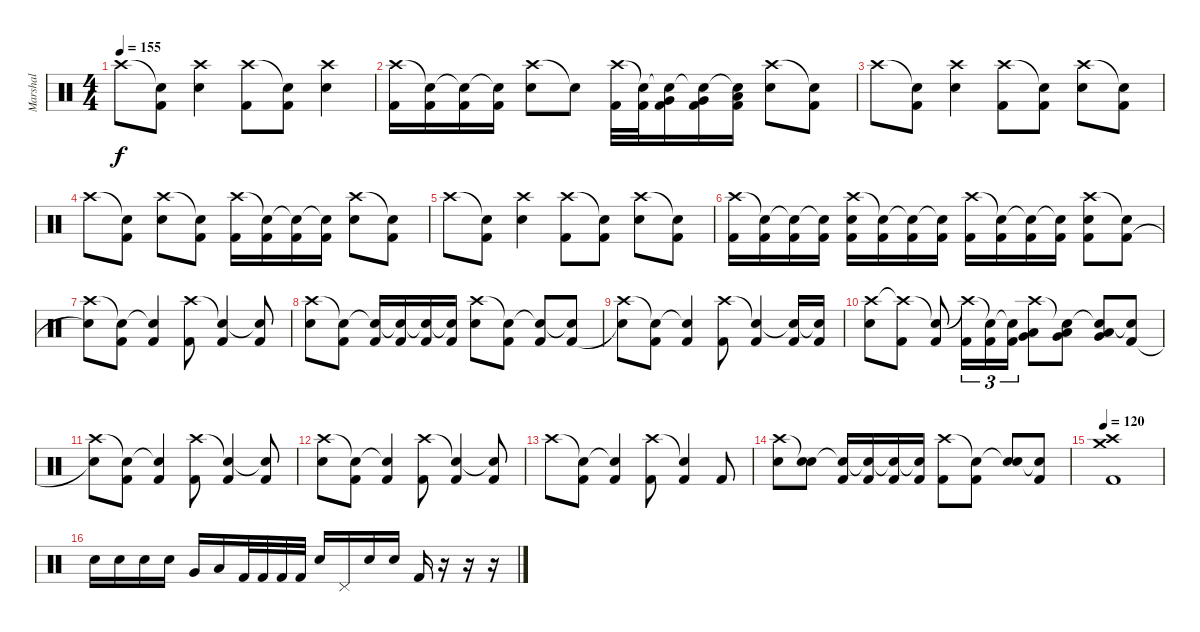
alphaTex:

\track ("Marshal" "Marshal") {instrument percussion}
\staff {score}
\articulation defaults
\ts (4 4)
\tempo 155
\clef neutral
\ks c "Crash high (hit)".8{dy f}
("Snare (hit)"{t} "Kick (hit) 2").8 ("Crash high (hit)" "Electric Snare (hit)").4 ("Crash high (hit)" "Kick (hit) 2").8 ("Snare (hit)"{t} "Kick (hit) 2").8 ("Crash high (hit)" "Electric Snare (hit)").4 |
("Crash high (hit)" "Kick (hit) 2").16 ("Snare (hit)"{t} "Kick (hit) 2").16 ("Snare (hit)"{t} "Kick (hit) 2").16 ("Snare (hit)"{t} "Kick (hit) 2").16 ("Crash high (hit)" "Electric Snare (hit)").8 "Snare (hit)"{t}.8 ("Crash high (hit)" "Kick (hit) 2").32 ("Snare (hit)"{t} "Kick (hit) 2").32 ("Snare (hit)"{t} "Very Low Tom (hit)" "Kick (hit) 2").16 ("Snare (hit)"{t} "Very Low Tom (hit)" "Kick (hit) 2").16 ("Snare (hit)"{t} "Low Floor Tom (hit)" "Kick (hit) 2").16 ("Crash high (hit)" "Electric Snare (hit)").8 ("Snare (hit)"{t} "Kick (hit) 2").8 |
"Crash high (hit)".8 ("Snare (hit)"{t} "Kick (hit) 2").8 ("Crash high (hit)" "Electric Snare (hit)").4 ("Crash high (hit)" "Kick (hit) 2").8 ("Snare (hit)"{t} "Kick (hit) 2").8 ("Crash high (hit)" "Electric Snare (hit)").8 ("Snare (hit)"{t} "Kick (hit) 2").8 |
"Crash high (hit)".8 ("Snare (hit)"{t} "Kick (hit) 2").8 ("Crash high (hit)" "Electric Snare (hit)").8 ("Snare (hit)"{t} "Kick (hit) 2").8 ("Crash high (hit)" "Kick (hit) 2").16 ("Snare (hit)"{t} "Kick (hit) 2").16 ("Snare (hit)"{t} "Kick (hit) 2").16 ("Snare (hit)"{t} "Kick (hit) 2").16 ("Crash high (hit)" "Electric Snare (hit)").8 ("Snare (hit)"{t} "Kick (hit) 2").8 |
"Crash high (hit)".8 ("Snare (hit)"{t} "Kick (hit) 2").8 ("Crash high (hit)" "Electric Snare (hit)").4 ("Crash high (hit)" "Kick (hit) 2").8 ("Snare (hit)"{t} "Kick (hit) 2").8 ("Crash high (hit)" "Electric Snare (hit)").8 ("Snare (hit)"{t} "Kick (hit) 2").8 |
("Crash high (hit)" "Kick (hit) 2").16 ("Snare (hit)"{t} "Kick (hit) 2").16 ("Snare (hit)"{t} "Kick (hit) 2").16 ("Snare (hit)"{t} "Kick (hit) 2").16 ("Crash high (hit)" "Electric Snare (hit)" "Kick (hit) 2").16 ("Snare (hit)"{t} "Kick (hit) 2").16 ("Snare (hit)"{t} "Kick (hit) 2").16 ("Snare (hit)"{t} "Kick (hit) 2").16 ("Crash high (hit)" "Kick (hit) 2").16 ("Snare (hit)"{t} "Kick (hit) 2").16 ("Snare (hit)"{t} "Kick (hit) 2").16 ("Snare (hit)"{t} "Kick (hit) 2").16 ("Crash high (hit)" "Electric Snare (hit)" "Kick (hit) 2").8 ("Snare (hit)"{t} "Kick (hit) 2").8 |
("Crash high (hit)" "Snare (hit)"{t}).8 ("Snare (hit)"{t} "Kick (hit) 2").8 ("Snare (hit)"{t} "Kick (hit) 2").4 ("Crash high (hit)" "Kick (hit) 2").8 ("Snare (hit)"{t} "Kick (hit) 2").4 ("Snare (hit)"{t} "Kick (hit) 2").8 |
("Crash high (hit)" "Electric Snare (hit)").8 ("Snare (hit)"{t} "Kick (hit) 2").8 ("Snare (hit)"{t} "Kick (hit) 2").16 ("Snare (hit)"{t} "Kick (hit) 2").16 ("Snare (hit)"{t} "Kick (hit) 2").16 ("Snare (hit)"{t} "Kick (hit) 2").16 ("Crash high (hit)" "Electric Snare (hit)").8 ("Snare (hit)"{t} "Kick (hit) 2").8 ("Snare (hit)"{t} "Kick (hit) 2").8 ("Snare (hit)"{t} "Kick (hit) 2").8 |
("Crash high (hit)" "Snare (hit)"{t}).8 ("Snare (hit)"{t} "Kick (hit) 2").8 ("Snare (hit)"{t} "Kick (hit) 2").4 ("Crash high (hit)" "Kick (hit) 2").8 ("Snare (hit)"{t} "Kick (hit) 2").4 ("Snare (hit)"{t} "Kick (hit) 2").16 ("Snare (hit)"{t} "Kick (hit) 2").16 |
("Crash high (hit)" "Electric Snare (hit)").8 ("Crash high (hit)"{t} "Kick (hit) 2").8 ("Snare (hit)"{t} "Kick (hit) 2").8 ("Crash high (hit)"{t} "Kick (hit) 2").16{tu (3 2)} ("Snare (hit)"{t} "Kick (hit) 2").16{tu (3 2)} ("Snare (hit)"{t} "Kick (hit) 2").16{tu (3 2)} ("Crash high (hit)" "Very Low Tom (hit)" "Low Floor Tom (hit)").8 ("Snare (hit)"{t} "Very Low Tom (hit)" "Low Floor Tom (hit)").8 ("Snare (hit)"{t} "Very Low Tom (hit)" "Low Floor Tom (hit)").8 ("Snare (hit)"{t} "Kick (hit) 2").8 |
("Crash high (hit)" "Snare (hit)"{t}).8 ("Snare (hit)"{t} "Kick (hit) 2").8 ("Snare (hit)"{t} "Kick (hit) 2").4 ("Crash high (hit)" "Kick (hit) 2").8 ("Snare (hit)"{t} "Kick (hit) 2").4 ("Snare (hit)"{t} "Kick (hit) 2").8 |
("Crash high (hit)" "Electric Snare (hit)").8 ("Snare (hit)"{t} "Kick (hit) 2").8 ("Snare (hit)"{t} "Kick (hit) 2").4 ("Crash high (hit)" "Kick (hit) 2").8 ("Snare (hit)"{t} "Kick (hit) 2").4 ("Snare (hit)"{t} "Kick (hit) 2").8 |
"Crash high (hit)".8 ("Snare (hit)"{t} "Kick (hit) 2").8 ("Snare (hit)"{t} "Kick (hit) 2").4 ("Crash high (hit)" "Kick (hit) 2").8 ("Snare (hit)"{t} "Kick (hit) 2").4 "Kick (hit) 2".8 |
("Crash high (hit)" "Electric Snare (hit)").8 ("Snare (hit)"{t} "Electric Snare (hit)").8 ("Snare (hit)"{t} "Kick (hit) 2").16 ("Snare (hit)"{t} "Kick (hit) 2").16 ("Snare (hit)"{t} "Kick (hit) 2").16 ("Snare (hit)"{t} "Kick (hit) 2").16 ("Crash high (hit)" "Kick (hit) 2").8 ("Snare (hit)"{t} "Kick (hit) 2").8 ("Snare (hit)"{t} "Electric Snare (hit)").8 ("Snare (hit)"{t} "Kick (hit) 2").8 |
\tempo 120
("Crash medium (hit)" "Crash high (hit)" "Kick (hit) 2").1 |
"Electric Snare (hit)".16 "Electric Snare (hit)".16 "Electric Snare (hit)".16 "Electric Snare (hit)".16 "Very Low Tom (hit)".16 "Low Floor Tom (hit)".16 "Kick (hit) 2".32 "Kick (hit) 2".32 "Kick (hit) 2".32 "Kick (hit) 2".32 "Electric Snare (hit)".16 "Pedal Hi-Hat (hit)".16 "Electric Snare (hit)".16 "Electric Snare (hit)".16 "Kick (hit) 2".16 r.16 r.16 r.16
